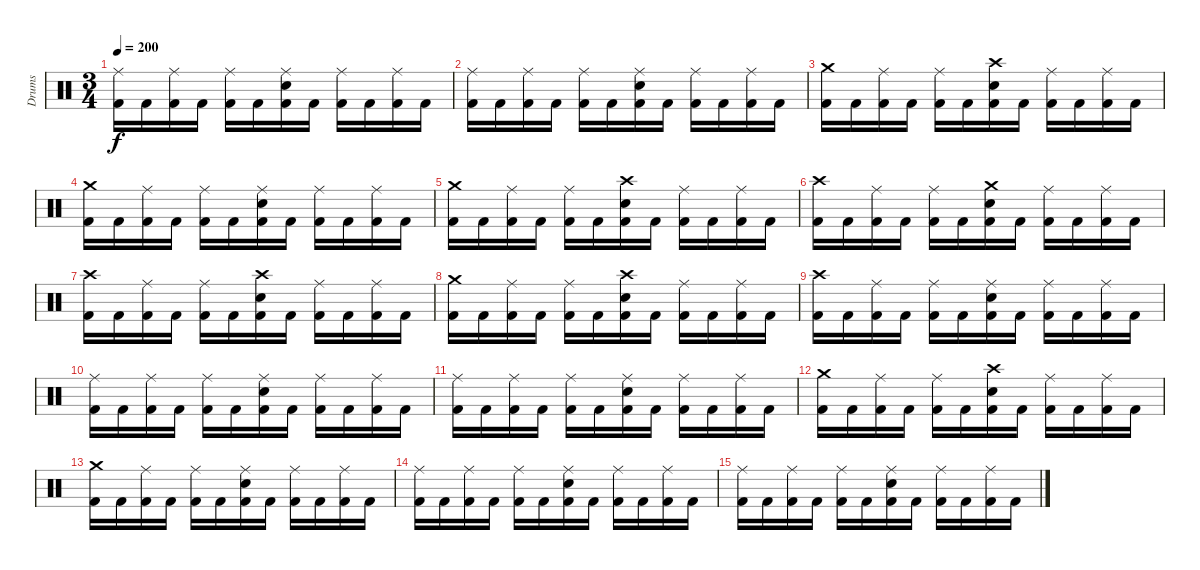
\track ("Drums" "Drums") {instrument percussion}
\staff {score}
\articulation defaults
\ts (3 4)
\tempo 200
\clef neutral
\ks c
("Ride (middle)" "Kick (hit) 2").16{dy f} "Kick (hit) 2".16 ("Ride (middle)" "Kick (hit) 2").16 "Kick (hit) 2".16 ("Ride (middle)" "Kick (hit) 2").16 "Kick (hit) 2".16 ("Ride (middle)" "Electric Snare (hit)" "Kick (hit) 2").16 "Kick (hit) 2".16 ("Ride (middle)" "Kick (hit) 2").16 "Kick (hit) 2".16 ("Ride (middle)" "Kick (hit) 2").16 "Kick (hit) 2".16 |
("Ride (middle)" "Kick (hit) 2").16 "Kick (hit) 2".16 ("Ride (middle)" "Kick (hit) 2").16 "Kick (hit) 2".16 ("Ride (middle)" "Kick (hit) 2").16 "Kick (hit) 2".16 ("Ride (middle)" "Electric Snare (hit)" "Kick (hit) 2").16 "Kick (hit) 2".16 ("Ride (middle)" "Kick (hit) 2").16 "Kick (hit) 2".16 ("Ride (middle)" "Kick (hit) 2").16 "Kick (hit) 2".16 |
("Crash medium (hit)" "Kick (hit) 2").16 "Kick (hit) 2".16 ("Ride (middle)" "Kick (hit) 2").16 "Kick (hit) 2".16 ("Ride (middle)" "Kick (hit) 2").16 "Kick (hit) 2".16 ("Crash high (hit)" "Electric Snare (hit)" "Kick (hit) 2").16 "Kick (hit) 2".16 ("Ride (middle)" "Kick (hit) 2").16 "Kick (hit) 2".16 ("Ride (middle)" "Kick (hit) 2").16 "Kick (hit) 2".16 |
("Crash medium (hit)" "Kick (hit) 2").16 "Kick (hit) 2".16 ("Ride (middle)" "Kick (hit) 2").16 "Kick (hit) 2".16 ("Ride (middle)" "Kick (hit) 2").16 "Kick (hit) 2".16 ("Ride (middle)" "Electric Snare (hit)" "Kick (hit) 2").16 "Kick (hit) 2".16 ("Ride (middle)" "Kick (hit) 2").16 "Kick (hit) 2".16 ("Ride (middle)" "Kick (hit) 2").16 "Kick (hit) 2".16 |
("Crash medium (hit)" "Kick (hit) 2").16 "Kick (hit) 2".16 ("Ride (middle)" "Kick (hit) 2").16 "Kick (hit) 2".16 ("Ride (middle)" "Kick (hit) 2").16 "Kick (hit) 2".16 ("Crash high (hit)" "Electric Snare (hit)" "Kick (hit) 2").16 "Kick (hit) 2".16 ("Ride (middle)" "Kick (hit) 2").16 "Kick (hit) 2".16 ("Ride (middle)" "Kick (hit) 2").16 "Kick (hit) 2".16 |
("Crash high (hit)" "Kick (hit) 2").16 "Kick (hit) 2".16 ("Ride (middle)" "Kick (hit) 2").16 "Kick (hit) 2".16 ("Ride (middle)" "Kick (hit) 2").16 "Kick (hit) 2".16 ("Crash medium (hit)" "Electric Snare (hit)" "Kick (hit) 2").16 "Kick (hit) 2".16 ("Ride (middle)" "Kick (hit) 2").16 "Kick (hit) 2".16 ("Ride (middle)" "Kick (hit) 2").16 "Kick (hit) 2".16 |
("Crash high (hit)" "Kick (hit) 2").16 "Kick (hit) 2".16 ("Ride (middle)" "Kick (hit) 2").16 "Kick (hit) 2".16 ("Ride (middle)" "Kick (hit) 2").16 "Kick (hit) 2".16 ("Crash high (hit)" "Electric Snare (hit)" "Kick (hit) 2").16 "Kick (hit) 2".16 ("Ride (middle)" "Kick (hit) 2").16 "Kick (hit) 2".16 ("Ride (middle)" "Kick (hit) 2").16 "Kick (hit) 2".16 |
("Crash medium (hit)" "Kick (hit) 2").16 "Kick (hit) 2".16 ("Ride (middle)" "Kick (hit) 2").16 "Kick (hit) 2".16 ("Ride (middle)" "Kick (hit) 2").16 "Kick (hit) 2".16 ("Crash high (hit)" "Electric Snare (hit)" "Kick (hit) 2").16 "Kick (hit) 2".16 ("Ride (middle)" "Kick (hit) 2").16 "Kick (hit) 2".16 ("Ride (middle)" "Kick (hit) 2").16 "Kick (hit) 2".16 |
("Crash high (hit)" "Kick (hit) 2").16 "Kick (hit) 2".16 ("Ride (middle)" "Kick (hit) 2").16 "Kick (hit) 2".16 ("Ride (middle)" "Kick (hit) 2").16 "Kick (hit) 2".16 ("Ride (middle)" "Electric Snare (hit)" "Kick (hit) 2").16 "Kick (hit) 2".16 ("Ride (middle)" "Kick (hit) 2").16 "Kick (hit) 2".16 ("Ride (middle)" "Kick (hit) 2").16 "Kick (hit) 2".16 |
("Ride (middle)" "Kick (hit) 2").16 "Kick (hit) 2".16 ("Ride (middle)" "Kick (hit) 2").16 "Kick (hit) 2".16 ("Ride (middle)" "Kick (hit) 2").16 "Kick (hit) 2".16 ("Ride (middle)" "Electric Snare (hit)" "Kick (hit) 2").16 "Kick (hit) 2".16 ("Ride (middle)" "Kick (hit) 2").16 "Kick (hit) 2".16 ("Ride (middle)" "Kick (hit) 2").16 "Kick (hit) 2".16 |
("Ride (middle)" "Kick (hit) 2").16 "Kick (hit) 2".16 ("Ride (middle)" "Kick (hit) 2").16 "Kick (hit) 2".16 ("Ride (middle)" "Kick (hit) 2").16 "Kick (hit) 2".16 ("Ride (middle)" "Electric Snare (hit)" "Kick (hit) 2").16 "Kick (hit) 2".16 ("Ride (middle)" "Kick (hit) 2").16 "Kick (hit) 2".16 ("Ride (middle)" "Kick (hit) 2").16 "Kick (hit) 2".16 |
("Crash medium (hit)" "Kick (hit) 2").16 "Kick (hit) 2".16 ("Ride (middle)" "Kick (hit) 2").16 "Kick (hit) 2".16 ("Ride (middle)" "Kick (hit) 2").16 "Kick (hit) 2".16 ("Crash high (hit)" "Electric Snare (hit)" "Kick (hit) 2").16 "Kick (hit) 2".16 ("Ride (middle)" "Kick (hit) 2").16 "Kick (hit) 2".16 ("Ride (middle)" "Kick (hit) 2").16 "Kick (hit) 2".16 |
("Crash medium (hit)" "Kick (hit) 2").16 "Kick (hit) 2".16 ("Ride (middle)" "Kick (hit) 2").16 "Kick (hit) 2".16 ("Ride (middle)" "Kick (hit) 2").16 "Kick (hit) 2".16 ("Ride (middle)" "Electric Snare (hit)" "Kick (hit) 2").16 "Kick (hit) 2".16 ("Ride (middle)" "Kick (hit) 2").16 "Kick (hit) 2".16 ("Ride (middle)" "Kick (hit) 2").16 "Kick (hit) 2".16 |
("Ride (middle)" "Kick (hit) 2").16 "Kick (hit) 2".16 ("Ride (middle)" "Kick (hit) 2").16 "Kick (hit) 2".16 ("Ride (middle)" "Kick (hit) 2").16 "Kick (hit) 2".16 ("Ride (middle)" "Electric Snare (hit)" "Kick (hit) 2").16 "Kick (hit) 2".16 ("Ride (middle)" "Kick (hit) 2").16 "Kick (hit) 2".16 ("Ride (middle)" "Kick (hit) 2").16 "Kick (hit) 2".16 |
("Ride (middle)" "Kick (hit) 2").16 "Kick (hit) 2".16 ("Ride (middle)" "Kick (hit) 2").16 "Kick (hit) 2".16 ("Ride (middle)" "Kick (hit) 2").16 "Kick (hit) 2".16 ("Ride (middle)" "Electric Snare (hit)" "Kick (hit) 2").16 "Kick (hit) 2".16 ("Ride (middle)" "Kick (hit) 2").16 "Kick (hit) 2".16 ("Ride (middle)" "Kick (hit) 2").16 "Kick (hit) 2".16
